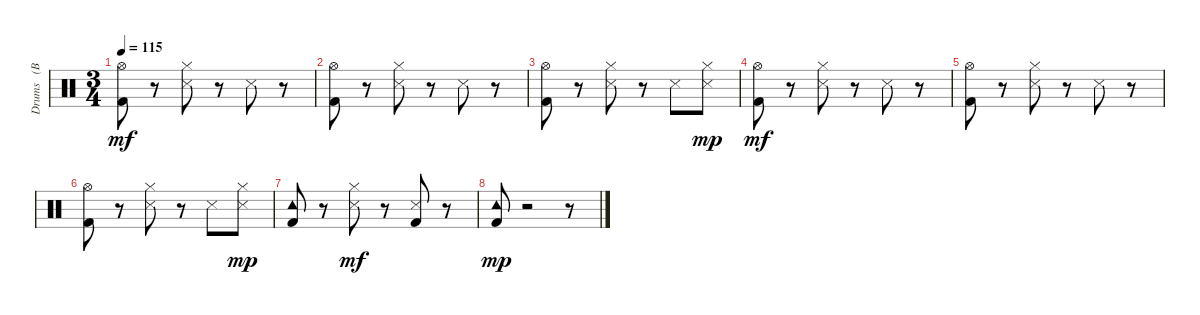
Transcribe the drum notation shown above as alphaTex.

\track ("Drums   (BB)" "Drums   (B") {instrument percussion}
\staff {score}
\articulation defaults
\ts (3 4)
\tempo 115
\clef neutral
\ks c
("Kick (hit) 2" "Hi-Hat (open)").8{dy mf} r.8 ("Hi-Hat (closed)" "Snare (side stick) 3").8 r.8 "Snare (side stick) 3".8 r.8 |
("Kick (hit) 2" "Hi-Hat (open)").8 r.8 ("Hi-Hat (closed)" "Snare (side stick) 3").8 r.8 "Snare (side stick) 3".8 r.8 |
("Kick (hit) 2" "Hi-Hat (open)").8 r.8 ("Hi-Hat (closed)" "Snare (side stick) 3").8 r.8 "Snare (side stick) 3".8 ("Hi-Hat (closed)" "Snare (side stick) 3").8{dy mp} |
("Kick (hit) 2" "Hi-Hat (open)").8{dy mf} r.8 ("Hi-Hat (closed)" "Snare (side stick) 3").8 r.8 "Snare (side stick) 3".8 r.8 |
("Kick (hit) 2" "Hi-Hat (open)").8 r.8 ("Hi-Hat (closed)" "Snare (side stick) 3").8 r.8 "Snare (side stick) 3".8 r.8 |
("Kick (hit) 2" "Hi-Hat (open)").8 r.8 ("Hi-Hat (closed)" "Snare (side stick) 3").8 r.8 "Snare (side stick) 3".8 ("Hi-Hat (closed)" "Snare (side stick) 3").8{dy mp} |
("Kick (hit) 2" "Tambourine (hit)").8 r.8 ("Hi-Hat (closed)" "Snare (side stick) 3").8{dy mf} r.8 ("Kick (hit) 2" "Snare (side stick) 3").8 r.8 |
("Kick (hit) 2" "Tambourine (hit)").8{dy mp} r.2 r.8
